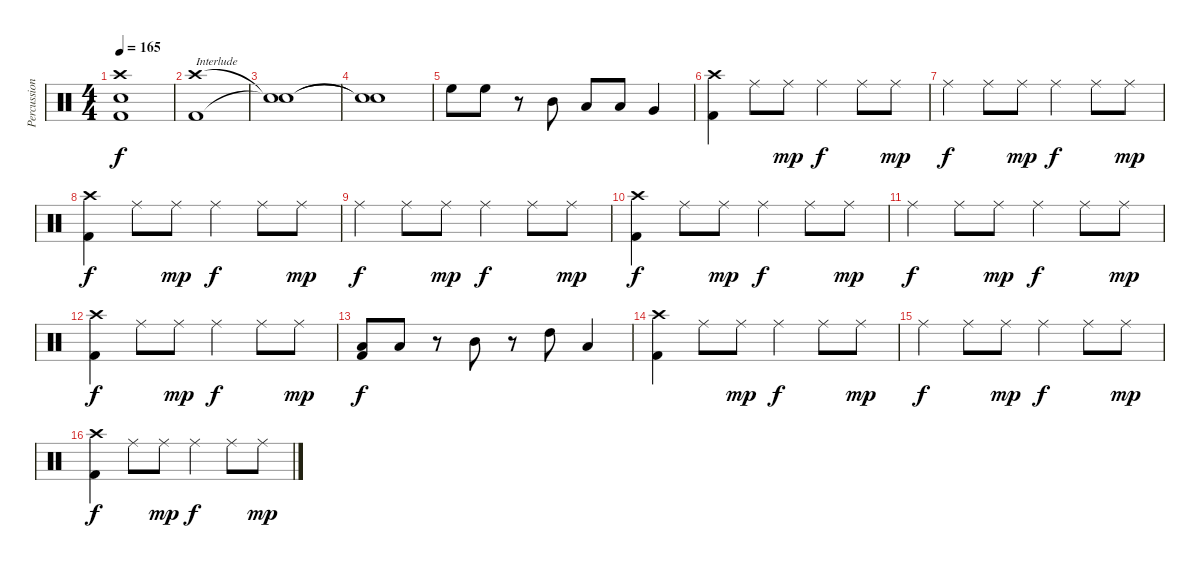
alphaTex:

\track ("Percussion" "Percussion") {instrument percussion}
\staff {score}
\articulation defaults
\ts (4 4)
\tempo 165
\clef neutral
\ks c
("Crash high (hit)" "Snare (hit) 2" "Kick (hit) 2").1{dy f} |
("Crash high (hit)" "Kick (hit) 2").1{txt "Interlude"} |
("Snare (hit)"{t} "Snare (hit)"{t}).1 |
("Snare (hit)"{t} "Snare (hit)"{t}).1 |
"High Floor Tom (hit)".8 "High Floor Tom (hit)".8 r.8 "Mid Tom (hit)".8 "Low Tom (hit)".8 "Low Tom (hit)".8 "Very Low Tom (hit)".4 |
("Crash high (hit)" "Kick (hit) 2").4 "Ride (middle)".8 "Ride (middle)".8{dy mp} "Ride (middle)".4{dy f} "Ride (middle)".8 "Ride (middle)".8{dy mp} |
"Ride (middle)".4{dy f} "Ride (middle)".8 "Ride (middle)".8{dy mp} "Ride (middle)".4{dy f} "Ride (middle)".8 "Ride (middle)".8{dy mp} |
("Crash high (hit)" "Kick (hit) 2").4{dy f} "Ride (middle)".8 "Ride (middle)".8{dy mp} "Ride (middle)".4{dy f} "Ride (middle)".8 "Ride (middle)".8{dy mp} |
"Ride (middle)".4{dy f} "Ride (middle)".8 "Ride (middle)".8{dy mp} "Ride (middle)".4{dy f} "Ride (middle)".8 "Ride (middle)".8{dy mp} |
("Crash high (hit)" "Kick (hit) 2").4{dy f} "Ride (middle)".8 "Ride (middle)".8{dy mp} "Ride (middle)".4{dy f} "Ride (middle)".8 "Ride (middle)".8{dy mp} |
"Ride (middle)".4{dy f} "Ride (middle)".8 "Ride (middle)".8{dy mp} "Ride (middle)".4{dy f} "Ride (middle)".8 "Ride (middle)".8{dy mp} |
("Crash high (hit)" "Kick (hit) 2").4{dy f} "Ride (middle)".8 "Ride (middle)".8{dy mp} "Ride (middle)".4{dy f} "Ride (middle)".8 "Ride (middle)".8{dy mp} |
("Low Tom (hit)" "Kick (hit) 2").8{dy f} "Low Tom (hit)".8 r.8 "Mid Tom (hit)".8 r.8 "High Tom (hit)".8 "Low Tom (hit)".4 |
("Crash high (hit)" "Kick (hit) 2").4 "Ride (middle)".8 "Ride (middle)".8{dy mp} "Ride (middle)".4{dy f} "Ride (middle)".8 "Ride (middle)".8{dy mp} |
"Ride (middle)".4{dy f} "Ride (middle)".8 "Ride (middle)".8{dy mp} "Ride (middle)".4{dy f} "Ride (middle)".8 "Ride (middle)".8{dy mp} |
("Crash high (hit)" "Kick (hit) 2").4{dy f} "Ride (middle)".8 "Ride (middle)".8{dy mp} "Ride (middle)".4{dy f} "Ride (middle)".8 "Ride (middle)".8{dy mp}
